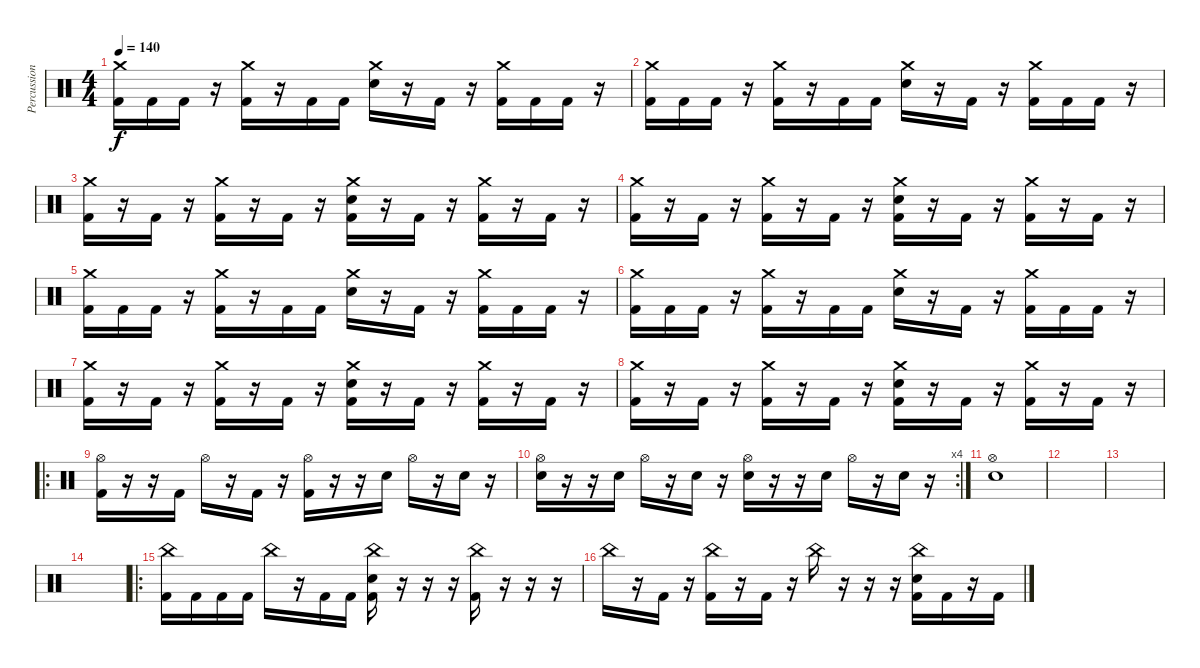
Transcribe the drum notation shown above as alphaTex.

\track ("Percussion" "Percussion") {instrument percussion}
\staff {score}
\articulation defaults
\ts (4 4)
\tempo 140
\clef neutral
\ks c
("Crash medium (hit)" "Kick (hit) 2").16{dy f} "Kick (hit) 2".16 "Kick (hit) 2".16 r.16 ("Crash medium (hit)" "Kick (hit) 2").16 r.16 "Kick (hit) 2".16 "Kick (hit) 2".16 ("Crash medium (hit)" "Electric Snare (hit)").16 r.16 "Kick (hit) 2".16 r.16 ("Crash medium (hit)" "Kick (hit) 2").16 "Kick (hit) 2".16 "Kick (hit) 2".16 r.16 |
("Crash medium (hit)" "Kick (hit) 2").16 "Kick (hit) 2".16 "Kick (hit) 2".16 r.16 ("Crash medium (hit)" "Kick (hit) 2").16 r.16 "Kick (hit) 2".16 "Kick (hit) 2".16 ("Crash medium (hit)" "Electric Snare (hit)").16 r.16 "Kick (hit) 2".16 r.16 ("Crash medium (hit)" "Kick (hit) 2").16 "Kick (hit) 2".16 "Kick (hit) 2".16 r.16 |
("Crash medium (hit)" "Kick (hit) 2").16 r.16 "Kick (hit) 2".16 r.16 ("Crash medium (hit)" "Kick (hit) 2").16 r.16 "Kick (hit) 2".16 r.16 ("Crash medium (hit)" "Kick (hit) 2" "Electric Snare (hit)").16 r.16 "Kick (hit) 2".16 r.16 ("Crash medium (hit)" "Kick (hit) 2").16 r.16 "Kick (hit) 2".16 r.16 |
("Crash medium (hit)" "Kick (hit) 2").16 r.16 "Kick (hit) 2".16 r.16 ("Crash medium (hit)" "Kick (hit) 2").16 r.16 "Kick (hit) 2".16 r.16 ("Crash medium (hit)" "Kick (hit) 2" "Electric Snare (hit)").16 r.16 "Kick (hit) 2".16 r.16 ("Crash medium (hit)" "Kick (hit) 2").16 r.16 "Kick (hit) 2".16 r.16 |
("Crash medium (hit)" "Kick (hit) 2").16 "Kick (hit) 2".16 "Kick (hit) 2".16 r.16 ("Crash medium (hit)" "Kick (hit) 2").16 r.16 "Kick (hit) 2".16 "Kick (hit) 2".16 ("Crash medium (hit)" "Electric Snare (hit)").16 r.16 "Kick (hit) 2".16 r.16 ("Crash medium (hit)" "Kick (hit) 2").16 "Kick (hit) 2".16 "Kick (hit) 2".16 r.16 |
("Crash medium (hit)" "Kick (hit) 2").16 "Kick (hit) 2".16 "Kick (hit) 2".16 r.16 ("Crash medium (hit)" "Kick (hit) 2").16 r.16 "Kick (hit) 2".16 "Kick (hit) 2".16 ("Crash medium (hit)" "Electric Snare (hit)").16 r.16 "Kick (hit) 2".16 r.16 ("Crash medium (hit)" "Kick (hit) 2").16 "Kick (hit) 2".16 "Kick (hit) 2".16 r.16 |
("Crash medium (hit)" "Kick (hit) 2").16 r.16 "Kick (hit) 2".16 r.16 ("Crash medium (hit)" "Kick (hit) 2").16 r.16 "Kick (hit) 2".16 r.16 ("Crash medium (hit)" "Kick (hit) 2" "Electric Snare (hit)").16 r.16 "Kick (hit) 2".16 r.16 ("Crash medium (hit)" "Kick (hit) 2").16 r.16 "Kick (hit) 2".16 r.16 |
("Crash medium (hit)" "Kick (hit) 2").16 r.16 "Kick (hit) 2".16 r.16 ("Crash medium (hit)" "Kick (hit) 2").16 r.16 "Kick (hit) 2".16 r.16 ("Crash medium (hit)" "Kick (hit) 2" "Electric Snare (hit)").16 r.16 "Kick (hit) 2".16 r.16 ("Crash medium (hit)" "Kick (hit) 2").16 r.16 "Kick (hit) 2".16 r.16 |
\ro
("Hi-Hat (open)" "Kick (hit) 2").16 r.16 r.16 "Kick (hit) 2".16 "Hi-Hat (open)".16 r.16 "Kick (hit) 2".16 r.16 ("Hi-Hat (open)" "Kick (hit) 2").16 r.16 r.16 "Electric Snare (hit)".16 "Hi-Hat (open)".16 r.16 "Electric Snare (hit)".16 r.16 |
\rc 4
("Hi-Hat (open)" "Electric Snare (hit)").16 r.16 r.16 "Electric Snare (hit)".16 "Hi-Hat (open)".16 r.16 "Electric Snare (hit)".16 r.16 ("Hi-Hat (open)" "Electric Snare (hit)").16 r.16 r.16 "Electric Snare (hit)".16 "Hi-Hat (open)".16 r.16 "Electric Snare (hit)".16 r.16 |
("Electric Snare (hit)" "Hi-Hat (open)").1 |
|
|
|
\ro
("China (hit)" "Kick (hit) 2").16 "Kick (hit) 2".16 "Kick (hit) 2".16 "Kick (hit) 2".16 "China (hit)".16 r.16 "Kick (hit) 2".16 "Kick (hit) 2".16 ("China (hit)" "Electric Snare (hit)" "Kick (hit) 2").16 r.16 r.16 r.16 ("China (hit)" "Kick (hit) 2").16 r.16 r.16 r.16 |
"China (hit)".16 r.16 "Kick (hit) 2".16 r.16 ("China (hit)" "Kick (hit) 2").16 r.16 "Kick (hit) 2".16 r.16 "China (hit)".16 r.16 r.16 r.16 ("China (hit)" "Electric Snare (hit)" "Kick (hit) 2").16 "Kick (hit) 2".16 r.16 "Kick (hit) 2".16
